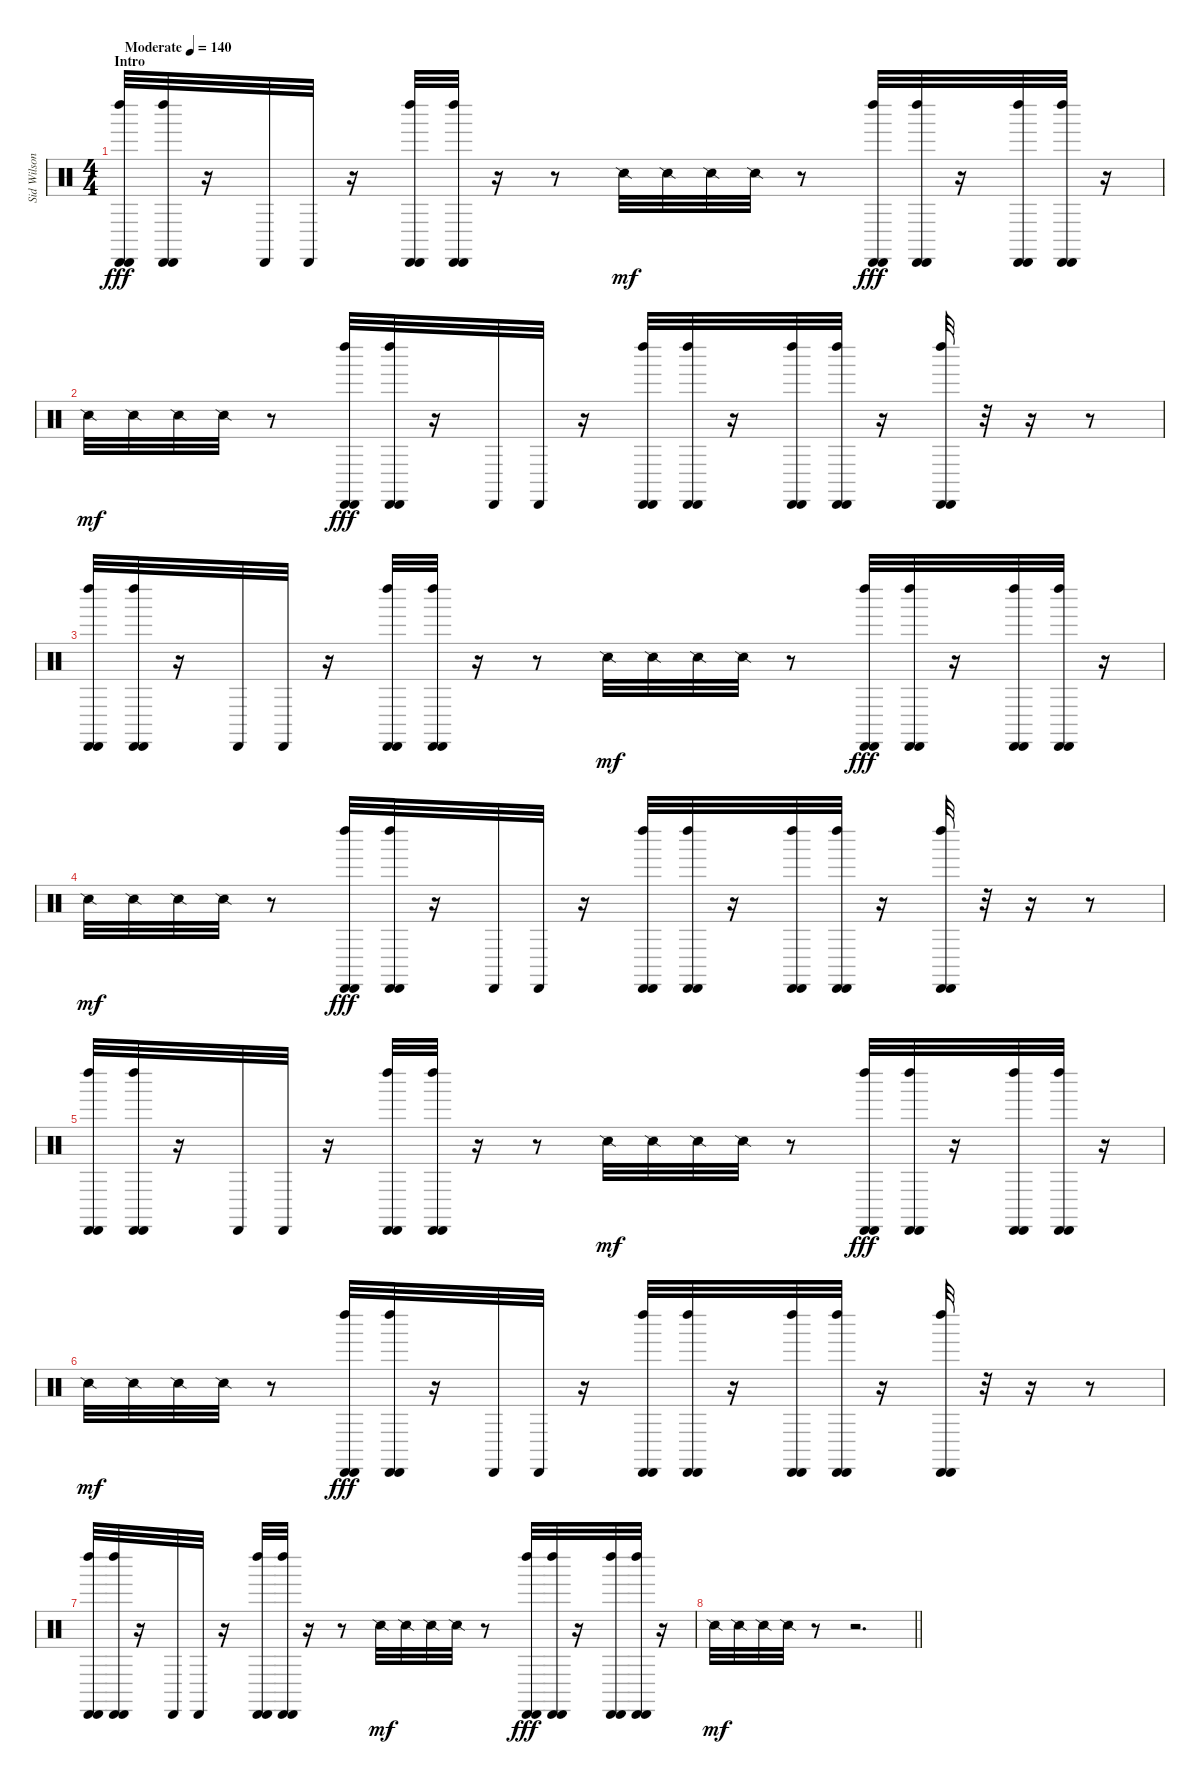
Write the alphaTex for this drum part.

\track ("Sid Wilson" "Sid Wilson") {instrument percussion}
\staff {score}
\articulation defaults
\ts (4 4)
\section ("" "Intro")
\tempo (140 "Moderate")
\clef neutral
\ks c
("Cabasa (hit)" "Left Maraca (hit)" "Cabasa (hit)").32{dy fff volume 11} ("Cabasa (hit)" "Left Maraca (hit)" "Cabasa (hit)").32 r.16 "Cabasa (hit)".32 "Cabasa (hit)".32 r.16 ("Cabasa (hit)" "Left Maraca (hit)" "Cabasa (hit)").32 ("Cabasa (hit)" "Left Maraca (hit)" "Cabasa (hit)").32 r.16 r.8 "Snare (side stick) 2".32{dy mf} "Snare (side stick) 2".32 "Snare (side stick) 2".32 "Snare (side stick) 2".32 r.8 ("Cabasa (hit)" "Left Maraca (hit)" "Cabasa (hit)").32{dy fff} ("Cabasa (hit)" "Left Maraca (hit)" "Cabasa (hit)").32 r.16 ("Cabasa (hit)" "Left Maraca (hit)" "Cabasa (hit)").32 ("Cabasa (hit)" "Left Maraca (hit)" "Cabasa (hit)").32 r.16 |
"Snare (side stick) 2".32{dy mf} "Snare (side stick) 2".32 "Snare (side stick) 2".32 "Snare (side stick) 2".32 r.8 ("Cabasa (hit)" "Left Maraca (hit)" "Cabasa (hit)").32{dy fff} ("Cabasa (hit)" "Left Maraca (hit)" "Cabasa (hit)").32 r.16 "Cabasa (hit)".32 "Cabasa (hit)".32 r.16 ("Cabasa (hit)" "Left Maraca (hit)" "Cabasa (hit)").32 ("Cabasa (hit)" "Left Maraca (hit)" "Cabasa (hit)").32 r.16 ("Cabasa (hit)" "Left Maraca (hit)" "Cabasa (hit)").32 ("Cabasa (hit)" "Left Maraca (hit)" "Cabasa (hit)").32 r.16 ("Cabasa (hit)" "Left Maraca (hit)" "Cabasa (hit)").32 r.32 r.16 r.8 |
("Cabasa (hit)" "Left Maraca (hit)" "Cabasa (hit)").32 ("Cabasa (hit)" "Left Maraca (hit)" "Cabasa (hit)").32 r.16 "Cabasa (hit)".32 "Cabasa (hit)".32 r.16 ("Cabasa (hit)" "Left Maraca (hit)" "Cabasa (hit)").32 ("Cabasa (hit)" "Left Maraca (hit)" "Cabasa (hit)").32 r.16 r.8 "Snare (side stick) 2".32{dy mf} "Snare (side stick) 2".32 "Snare (side stick) 2".32 "Snare (side stick) 2".32 r.8 ("Cabasa (hit)" "Left Maraca (hit)" "Cabasa (hit)").32{dy fff} ("Cabasa (hit)" "Left Maraca (hit)" "Cabasa (hit)").32 r.16 ("Cabasa (hit)" "Left Maraca (hit)" "Cabasa (hit)").32 ("Cabasa (hit)" "Left Maraca (hit)" "Cabasa (hit)").32 r.16 |
"Snare (side stick) 2".32{dy mf} "Snare (side stick) 2".32 "Snare (side stick) 2".32 "Snare (side stick) 2".32 r.8 ("Cabasa (hit)" "Left Maraca (hit)" "Cabasa (hit)").32{dy fff} ("Cabasa (hit)" "Left Maraca (hit)" "Cabasa (hit)").32 r.16 "Cabasa (hit)".32 "Cabasa (hit)".32 r.16 ("Cabasa (hit)" "Left Maraca (hit)" "Cabasa (hit)").32 ("Cabasa (hit)" "Left Maraca (hit)" "Cabasa (hit)").32 r.16 ("Cabasa (hit)" "Left Maraca (hit)" "Cabasa (hit)").32 ("Cabasa (hit)" "Left Maraca (hit)" "Cabasa (hit)").32 r.16 ("Cabasa (hit)" "Left Maraca (hit)" "Cabasa (hit)").32 r.32 r.16 r.8 |
("Cabasa (hit)" "Left Maraca (hit)" "Cabasa (hit)").32 ("Cabasa (hit)" "Left Maraca (hit)" "Cabasa (hit)").32 r.16 "Cabasa (hit)".32 "Cabasa (hit)".32 r.16 ("Cabasa (hit)" "Left Maraca (hit)" "Cabasa (hit)").32 ("Cabasa (hit)" "Left Maraca (hit)" "Cabasa (hit)").32 r.16 r.8 "Snare (side stick) 2".32{dy mf} "Snare (side stick) 2".32 "Snare (side stick) 2".32 "Snare (side stick) 2".32 r.8 ("Cabasa (hit)" "Left Maraca (hit)" "Cabasa (hit)").32{dy fff} ("Cabasa (hit)" "Left Maraca (hit)" "Cabasa (hit)").32 r.16 ("Cabasa (hit)" "Left Maraca (hit)" "Cabasa (hit)").32 ("Cabasa (hit)" "Left Maraca (hit)" "Cabasa (hit)").32 r.16 |
"Snare (side stick) 2".32{dy mf} "Snare (side stick) 2".32 "Snare (side stick) 2".32 "Snare (side stick) 2".32 r.8 ("Cabasa (hit)" "Left Maraca (hit)" "Cabasa (hit)").32{dy fff} ("Cabasa (hit)" "Left Maraca (hit)" "Cabasa (hit)").32 r.16 "Cabasa (hit)".32 "Cabasa (hit)".32 r.16 ("Cabasa (hit)" "Left Maraca (hit)" "Cabasa (hit)").32 ("Cabasa (hit)" "Left Maraca (hit)" "Cabasa (hit)").32 r.16 ("Cabasa (hit)" "Left Maraca (hit)" "Cabasa (hit)").32 ("Cabasa (hit)" "Left Maraca (hit)" "Cabasa (hit)").32 r.16 ("Cabasa (hit)" "Left Maraca (hit)" "Cabasa (hit)").32 r.32 r.16 r.8 |
("Cabasa (hit)" "Left Maraca (hit)" "Cabasa (hit)").32 ("Cabasa (hit)" "Left Maraca (hit)" "Cabasa (hit)").32 r.16 "Cabasa (hit)".32 "Cabasa (hit)".32 r.16 ("Cabasa (hit)" "Left Maraca (hit)" "Cabasa (hit)").32 ("Cabasa (hit)" "Left Maraca (hit)" "Cabasa (hit)").32 r.16 r.8 "Snare (side stick) 2".32{dy mf} "Snare (side stick) 2".32 "Snare (side stick) 2".32 "Snare (side stick) 2".32 r.8 ("Cabasa (hit)" "Left Maraca (hit)" "Cabasa (hit)").32{dy fff} ("Cabasa (hit)" "Left Maraca (hit)" "Cabasa (hit)").32 r.16 ("Cabasa (hit)" "Left Maraca (hit)" "Cabasa (hit)").32 ("Cabasa (hit)" "Left Maraca (hit)" "Cabasa (hit)").32 r.16 |
\barLineRight lightlight "Snare (side stick) 2".32{dy mf} "Snare (side stick) 2".32 "Snare (side stick) 2".32 "Snare (side stick) 2".32
r.8 r.2{d}
